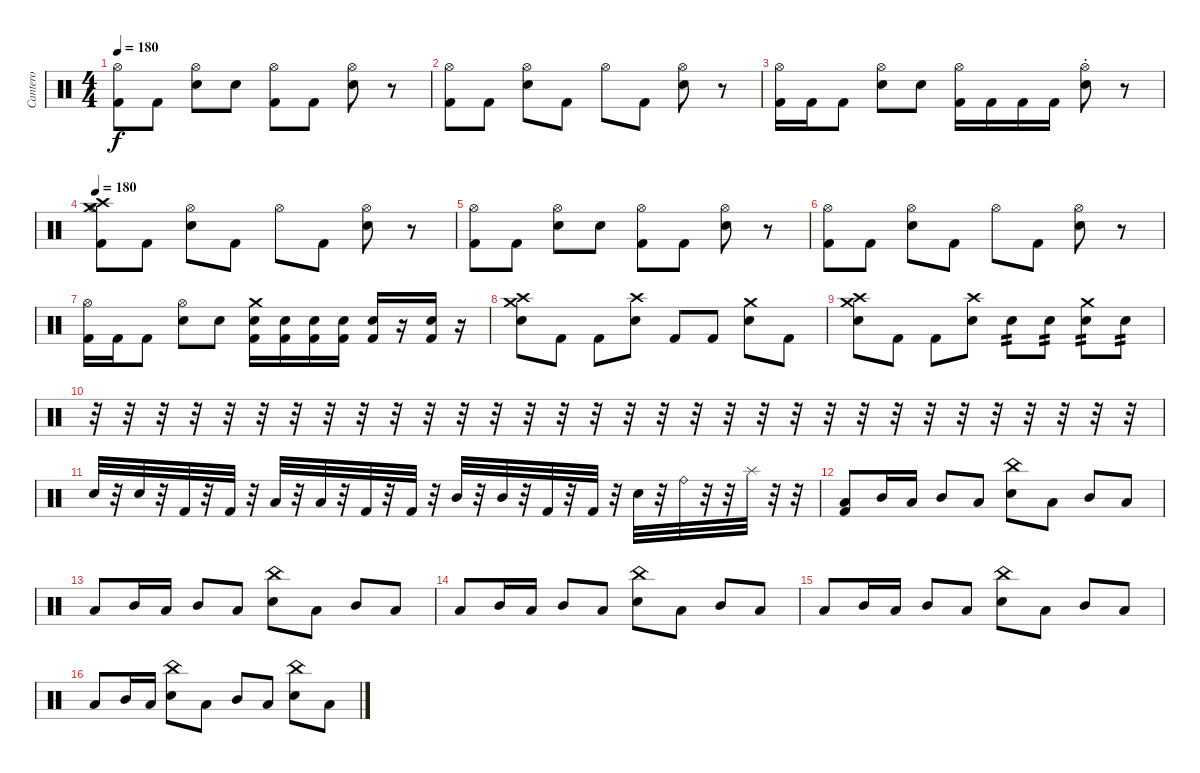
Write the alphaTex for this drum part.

\track ("Cantero" "Cantero") {instrument percussion}
\staff {score}
\articulation defaults
\ts (4 4)
\tempo 180
\clef neutral
\ks c
("Kick (hit) 2" "Hi-Hat (open)").8{dy f} "Kick (hit) 2".8 ("Electric Snare (hit)" "Hi-Hat (open)").8 "Electric Snare (hit)".8 ("Hi-Hat (open)" "Kick (hit) 2").8 "Kick (hit) 2".8 ("Electric Snare (hit)" "Hi-Hat (open)").8 r.8 |
("Kick (hit) 2" "Hi-Hat (open)").8 "Kick (hit) 2".8 ("Electric Snare (hit)" "Hi-Hat (open)").8 "Kick (hit) 2".8 "Hi-Hat (open)".8 "Kick (hit) 2".8 ("Electric Snare (hit)" "Hi-Hat (open)").8 r.8 |
("Kick (hit) 2" "Hi-Hat (open)").16 "Kick (hit) 2".16 "Kick (hit) 2".8 ("Electric Snare (hit)" "Hi-Hat (open)").8 "Electric Snare (hit)".8 ("Hi-Hat (open)" "Kick (hit) 2").16 "Kick (hit) 2".16 "Kick (hit) 2".16 "Kick (hit) 2".16 ("Electric Snare (hit)"{st} "Hi-Hat (open)"{st}).8 r.8 |
\tempo 180
("Kick (hit) 2" "Hi-Hat (open)" "Crash high (hit)" "Crash medium (hit)").8 "Kick (hit) 2".8 ("Electric Snare (hit)" "Hi-Hat (open)").8 "Kick (hit) 2".8 "Hi-Hat (open)".8 "Kick (hit) 2".8 ("Electric Snare (hit)" "Hi-Hat (open)").8 r.8 |
("Kick (hit) 2" "Hi-Hat (open)").8 "Kick (hit) 2".8 ("Electric Snare (hit)" "Hi-Hat (open)").8 "Electric Snare (hit)".8 ("Hi-Hat (open)" "Kick (hit) 2").8 "Kick (hit) 2".8 ("Electric Snare (hit)" "Hi-Hat (open)").8 r.8 |
("Kick (hit) 2" "Hi-Hat (open)").8 "Kick (hit) 2".8 ("Electric Snare (hit)" "Hi-Hat (open)").8 "Kick (hit) 2".8 "Hi-Hat (open)".8 "Kick (hit) 2".8 ("Electric Snare (hit)" "Hi-Hat (open)").8 r.8 |
("Kick (hit) 2" "Hi-Hat (open)").16 "Kick (hit) 2".16 "Kick (hit) 2".8 ("Electric Snare (hit)" "Hi-Hat (open)").8 "Electric Snare (hit)".8 ("Kick (hit) 2" "Electric Snare (hit)" "Crash medium (hit)").16 ("Kick (hit) 2" "Electric Snare (hit)").16 ("Kick (hit) 2" "Electric Snare (hit)").16 ("Kick (hit) 2" "Electric Snare (hit)").16 ("Electric Snare (hit)" "Kick (hit) 2").16 r.16 ("Electric Snare (hit)" "Kick (hit) 2").16 r.16 |
("Electric Snare (hit)" "Crash high (hit)" "Crash medium (hit)").8 "Kick (hit) 2".8 "Kick (hit) 2".8 ("Electric Snare (hit)" "Crash high (hit)").8 "Kick (hit) 2".8 "Kick (hit) 2".8 ("Electric Snare (hit)" "Crash medium (hit)").8 "Kick (hit) 2".8 |
("Electric Snare (hit)" "Crash high (hit)" "Crash medium (hit)").8 "Kick (hit) 2".8 "Kick (hit) 2".8 ("Electric Snare (hit)" "Crash high (hit)").8 "Electric Snare (hit)".8{tp 2} "Electric Snare (hit)".8{tp 2} ("Electric Snare (hit)" "Crash medium (hit)").8{tp 2} "Electric Snare (hit)".8{tp 2} |
r.32 r.32 r.32 r.32 r.32 r.32 r.32 r.32 r.32 r.32 r.32 r.32 r.32 r.32 r.32 r.32 r.32 r.32 r.32 r.32 r.32 r.32 r.32 r.32 r.32 r.32 r.32 r.32 r.32 r.32 r.32 r.32 |
"Electric Snare (hit)".32 r.32 "Electric Snare (hit)".32 r.32 "Kick (hit) 2".32 r.32 "Kick (hit) 2".32 r.32 "Low Tom (hit)".32 r.32 "Low Tom (hit)".32 r.32 "Kick (hit) 2".32 r.32 "Kick (hit) 2".32 r.32 "Mid Tom (hit)".32 r.32 "Mid Tom (hit)".32 r.32 "Kick (hit) 2".32 r.32 "Kick (hit) 2".32 r.32 "Electric Snare (hit)".32 r.32 "Ride (bell)".32 r.32 r.32 "Splash (hit)".32 r.32 r.32 |
("Low Tom (hit)" "Kick (hit) 2").8 "Mid Tom (hit)".16 "Low Tom (hit)".16 "Mid Tom (hit)".8 "Low Tom (hit)".8 ("Electric Snare (hit)" "China (hit)").8 "Low Tom (hit)".8 "Mid Tom (hit)".8 "Low Tom (hit)".8 |
"Low Tom (hit)".8 "Mid Tom (hit)".16 "Low Tom (hit)".16 "Mid Tom (hit)".8 "Low Tom (hit)".8 ("Electric Snare (hit)" "China (hit)").8 "Low Tom (hit)".8 "Mid Tom (hit)".8 "Low Tom (hit)".8 |
"Low Tom (hit)".8 "Mid Tom (hit)".16 "Low Tom (hit)".16 "Mid Tom (hit)".8 "Low Tom (hit)".8 ("Electric Snare (hit)" "China (hit)").8 "Low Tom (hit)".8 "Mid Tom (hit)".8 "Low Tom (hit)".8 |
"Low Tom (hit)".8 "Mid Tom (hit)".16 "Low Tom (hit)".16 "Mid Tom (hit)".8 "Low Tom (hit)".8 ("Electric Snare (hit)" "China (hit)").8 "Low Tom (hit)".8 "Mid Tom (hit)".8 "Low Tom (hit)".8 |
"Low Tom (hit)".8 "Mid Tom (hit)".16 "Low Tom (hit)".16 ("China (hit)" "Electric Snare (hit)").8 "Low Tom (hit)".8 "Mid Tom (hit)".8 "Low Tom (hit)".8 ("China (hit)" "Electric Snare (hit)").8 "Low Tom (hit)".8
